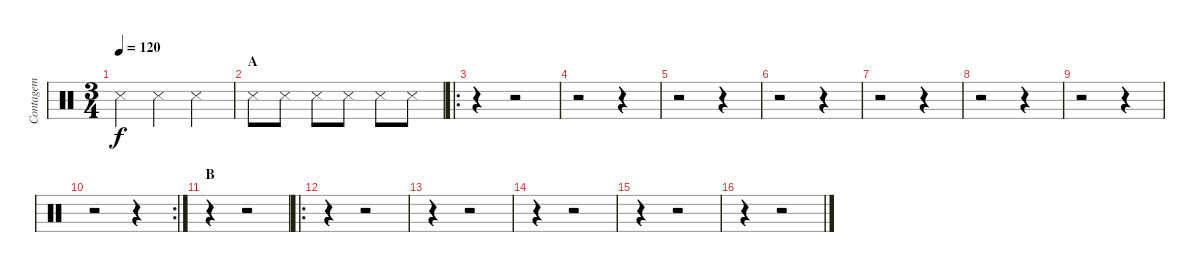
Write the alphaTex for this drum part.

\track ("Contagem" "Contagem") {instrument percussion}
\staff {score}
\articulation defaults
\ts (3 4)
\tempo 120
\clef neutral
\ks c "Metronome (hit)".4{dy f} "Metronome (hit)".4 "Metronome (hit)".4
|
\section ("" "A")
"Metronome (hit)".8 "Metronome (hit)".8 "Metronome (hit)".8 "Metronome (hit)".8 "Metronome (hit)".8 "Metronome (hit)".8 |
\ro
r.4 r.2 |
r.2 r.4 |
r.2 r.4 |
r.2 r.4 |
r.2 r.4 |
r.2 r.4 |
r.2 r.4 |
\rc 2
r.2 r.4 |
\section ("" "B")
r.4 r.2 |
\ro
r.4 r.2 |
r.4 r.2 |
r.4 r.2 |
r.4 r.2 |
r.4 r.2
